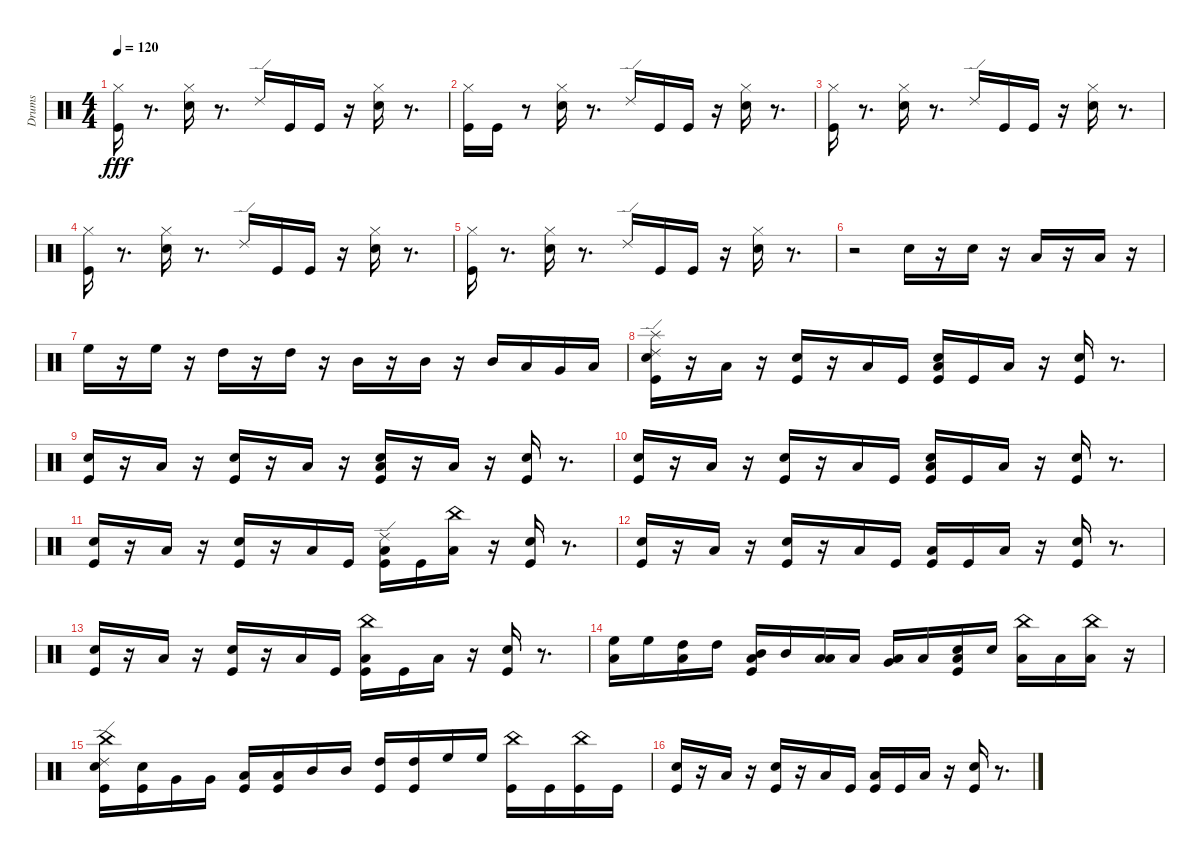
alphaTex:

\track ("Drums" "Drums") {instrument percussion}
\staff {score}
\articulation defaults
\ts (4 4)
\tempo 120
\clef neutral
\ks c
("Hi-Hat (closed)" "Kick (hit)").16{dy fff} r.8{d} ("Hi-Hat (closed)" "Snare (hit) 2").16 r.8{d} "Ride (edge) 2".16 "Kick (hit)".16 "Kick (hit)".16 r.16 ("Hi-Hat (closed)" "Snare (hit) 2").16 r.8{d} |
("Hi-Hat (closed)" "Kick (hit)").16 "Kick (hit)".16 r.8 ("Hi-Hat (closed)" "Snare (hit) 2").16 r.8{d} "Ride (edge) 2".16 "Kick (hit)".16 "Kick (hit)".16 r.16 ("Hi-Hat (closed)" "Snare (hit) 2").16 r.8{d} |
("Hi-Hat (closed)" "Kick (hit)").16 r.8{d} ("Hi-Hat (closed)" "Snare (hit) 2").16 r.8{d} "Ride (edge) 2".16 "Kick (hit)".16 "Kick (hit)".16 r.16 ("Hi-Hat (closed)" "Snare (hit) 2").16 r.8{d} |
("Hi-Hat (closed)" "Kick (hit)").16 r.8{d} ("Hi-Hat (closed)" "Snare (hit) 2").16 r.8{d} "Ride (edge) 2".16 "Kick (hit)".16 "Kick (hit)".16 r.16 ("Hi-Hat (closed)" "Snare (hit) 2").16 r.8{d} |
("Hi-Hat (closed)" "Kick (hit)").16 r.8{d} ("Hi-Hat (closed)" "Snare (hit) 2").16 r.8{d} "Ride (edge) 2".16 "Kick (hit)".16 "Kick (hit)".16 r.16 ("Hi-Hat (closed)" "Snare (hit) 2").16 r.8{d} |
r.2 "Electric Snare (hit)".16 r.16 "Electric Snare (hit)".16 r.16 "Low Tom (hit)".16 r.16 "Low Tom (hit)".16 r.16 |
"High Floor Tom (hit)".16 r.16 "High Floor Tom (hit)".16 r.16 "High Tom (hit)".16 r.16 "High Tom (hit)".16 r.16 "Mid Tom (hit)".16 r.16 "Mid Tom (hit)".16 r.16 "Mid Tom (hit)".16 "Low Tom (hit)".16 "Very Low Tom (hit)".16 "Low Floor Tom (hit)".16 |
("Splash (hit)" "Ride (edge) 2" "Kick (hit)" "Electric Snare (hit)").16 r.16 "Low Floor Tom (hit)".16 r.16 ("Kick (hit)" "Electric Snare (hit)").16 r.16 "Low Floor Tom (hit)".16 "Kick (hit)".16 ("Low Floor Tom (hit)" "Kick (hit)" "Electric Snare (hit)").16 "Kick (hit)".16 "Low Floor Tom (hit)".16 r.16 ("Kick (hit)" "Electric Snare (hit)").16 r.8{d} |
("Kick (hit)" "Electric Snare (hit)").16 r.16 "Low Floor Tom (hit)".16 r.16 ("Kick (hit)" "Electric Snare (hit)").16 r.16 "Low Floor Tom (hit)".16 r.16 ("Low Floor Tom (hit)" "Kick (hit)" "Electric Snare (hit)").16 r.16 "Low Floor Tom (hit)".16 r.16 ("Kick (hit)" "Electric Snare (hit)").16 r.8{d} |
("Kick (hit)" "Electric Snare (hit)").16 r.16 "Low Floor Tom (hit)".16 r.16 ("Kick (hit)" "Electric Snare (hit)").16 r.16 "Low Floor Tom (hit)".16 "Kick (hit)".16 ("Low Floor Tom (hit)" "Kick (hit)" "Electric Snare (hit)").16 "Kick (hit)".16 "Low Floor Tom (hit)".16 r.16 ("Kick (hit)" "Electric Snare (hit)").16 r.8{d} |
("Kick (hit)" "Electric Snare (hit)").16 r.16 "Low Floor Tom (hit)".16 r.16 ("Kick (hit)" "Electric Snare (hit)").16 r.16 "Low Floor Tom (hit)".16 "Kick (hit)".16 ("Low Floor Tom (hit)" "Kick (hit)" "Ride (edge) 2").16 "Kick (hit)".16 ("Low Floor Tom (hit)" "China (hit)").16 r.16 ("Kick (hit)" "Electric Snare (hit)").16 r.8{d} |
("Kick (hit)" "Electric Snare (hit)").16 r.16 "Low Floor Tom (hit)".16 r.16 ("Kick (hit)" "Electric Snare (hit)").16 r.16 "Low Floor Tom (hit)".16 "Kick (hit)".16 ("Low Floor Tom (hit)" "Kick (hit)").16 "Kick (hit)".16 "Low Floor Tom (hit)".16 r.16 ("Kick (hit)" "Electric Snare (hit)").16 r.8{d} |
("Kick (hit)" "Electric Snare (hit)").16 r.16 "Low Floor Tom (hit)".16 r.16 ("Kick (hit)" "Electric Snare (hit)").16 r.16 "Low Floor Tom (hit)".16 "Kick (hit)".16 ("Low Floor Tom (hit)" "Kick (hit)" "China (hit)").16 "Kick (hit)".16 "Low Floor Tom (hit)".16 r.16 ("Kick (hit)" "Electric Snare (hit)").16 r.8{d} |
("High Floor Tom (hit)" "Low Floor Tom (hit)").16 "High Floor Tom (hit)".16 ("High Tom (hit)" "Low Floor Tom (hit)").16 "High Tom (hit)".16 ("Mid Tom (hit)" "Low Floor Tom (hit)" "Kick (hit)").16 "Mid Tom (hit)".16 ("Low Tom (hit)" "Low Floor Tom (hit)").16 "Low Tom (hit)".16 ("Very Low Tom (hit)" "Low Floor Tom (hit)").16 "Low Floor Tom (hit)".16 ("Electric Snare (hit)" "Low Floor Tom (hit)" "Kick (hit)").16 "Electric Snare (hit)".16 ("China (hit)" "Low Floor Tom (hit)").16 "Low Floor Tom (hit)".16 ("China (hit)" "Low Floor Tom (hit)").16 r.16 |
("Ride (edge) 2" "China (hit)" "Electric Snare (hit)" "Kick (hit)").16 ("Kick (hit)" "Electric Snare (hit)").16 "Very Low Tom (hit)".16 "Very Low Tom (hit)".16 ("Low Tom (hit)" "Kick (hit)").16 ("Kick (hit)" "Low Tom (hit)").16 "Mid Tom (hit)".16 "Mid Tom (hit)".16 ("High Tom (hit)" "Kick (hit)").16 ("Kick (hit)" "High Tom (hit)").16 "High Floor Tom (hit)".16 "High Floor Tom (hit)".16 ("China (hit)" "Kick (hit)").16 "Kick (hit)".16 ("China (hit)" "Kick (hit)").16 "Kick (hit)".16 |
("Kick (hit)" "Electric Snare (hit)").16 r.16 "Low Floor Tom (hit)".16 r.16 ("Kick (hit)" "Electric Snare (hit)").16 r.16 "Low Floor Tom (hit)".16 "Kick (hit)".16 ("Low Floor Tom (hit)" "Kick (hit)").16 "Kick (hit)".16 "Low Floor Tom (hit)".16 r.16 ("Kick (hit)" "Electric Snare (hit)").16 r.8{d}
